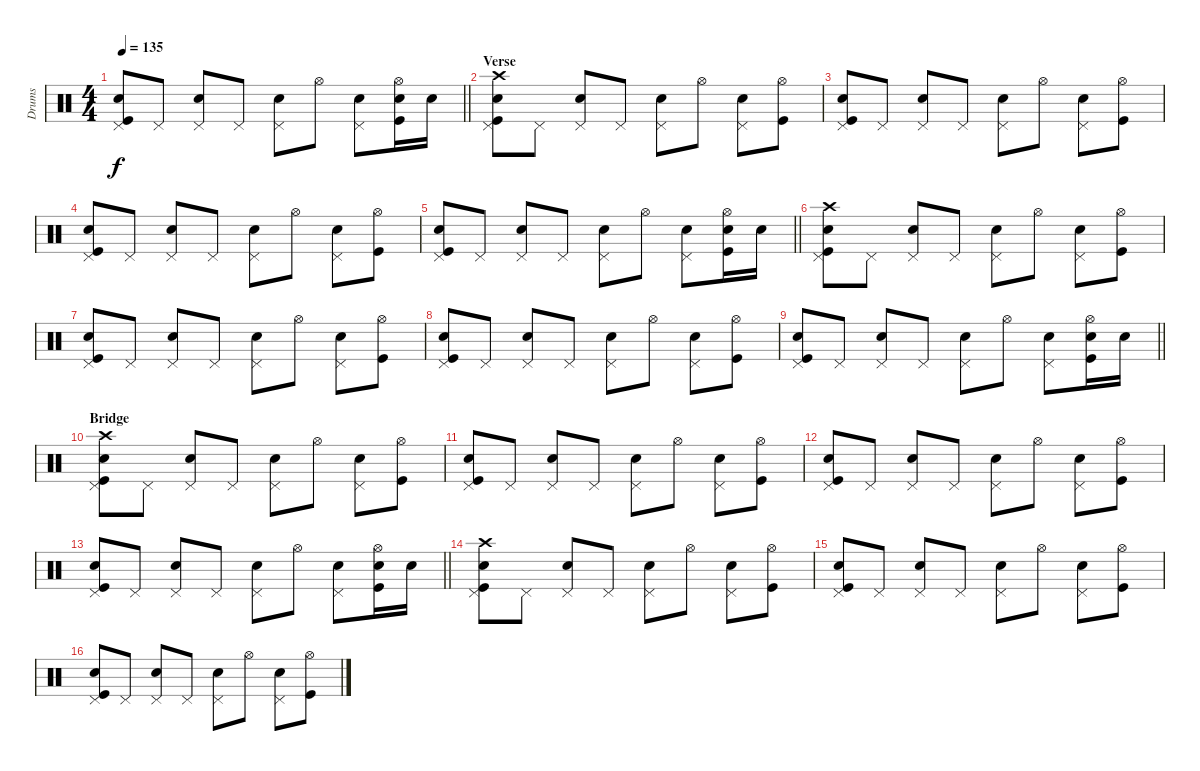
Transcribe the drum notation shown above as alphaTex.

\track ("Drums" "Drums") {instrument percussion}
\staff {score}
\articulation defaults
\ts (4 4)
\tempo 135
\clef neutral
\barLineRight lightlight
\ks c
("Pedal Hi-Hat (hit)" "Kick (hit)" "Electric Snare (hit)").8{dy f} "Pedal Hi-Hat (hit)".8 ("Pedal Hi-Hat (hit)" "Electric Snare (hit)").8 "Pedal Hi-Hat (hit)".8 ("Pedal Hi-Hat (hit)" "Electric Snare (hit)").8 "Hi-Hat (open)".8 ("Pedal Hi-Hat (hit)" "Electric Snare (hit)").8 ("Hi-Hat (open)" "Kick (hit)" "Electric Snare (hit)").16 "Electric Snare (hit)".16 |
\section ("" "Verse")
("Pedal Hi-Hat (hit)" "Kick (hit)" "Electric Snare (hit)" "Crash high (hit)").8 "Pedal Hi-Hat (hit)".8 ("Pedal Hi-Hat (hit)" "Electric Snare (hit)").8 "Pedal Hi-Hat (hit)".8 ("Pedal Hi-Hat (hit)" "Electric Snare (hit)").8 "Hi-Hat (open)".8 ("Pedal Hi-Hat (hit)" "Electric Snare (hit)").8 ("Hi-Hat (open)" "Kick (hit)").8 |
("Pedal Hi-Hat (hit)" "Kick (hit)" "Electric Snare (hit)").8 "Pedal Hi-Hat (hit)".8 ("Pedal Hi-Hat (hit)" "Electric Snare (hit)").8 "Pedal Hi-Hat (hit)".8 ("Pedal Hi-Hat (hit)" "Electric Snare (hit)").8 "Hi-Hat (open)".8 ("Pedal Hi-Hat (hit)" "Electric Snare (hit)").8 ("Hi-Hat (open)" "Kick (hit)").8 |
("Pedal Hi-Hat (hit)" "Kick (hit)" "Electric Snare (hit)").8 "Pedal Hi-Hat (hit)".8 ("Pedal Hi-Hat (hit)" "Electric Snare (hit)").8 "Pedal Hi-Hat (hit)".8 ("Pedal Hi-Hat (hit)" "Electric Snare (hit)").8 "Hi-Hat (open)".8 ("Pedal Hi-Hat (hit)" "Electric Snare (hit)").8 ("Hi-Hat (open)" "Kick (hit)").8 |
\barLineRight lightlight
("Pedal Hi-Hat (hit)" "Kick (hit)" "Electric Snare (hit)").8 "Pedal Hi-Hat (hit)".8 ("Pedal Hi-Hat (hit)" "Electric Snare (hit)").8 "Pedal Hi-Hat (hit)".8 ("Pedal Hi-Hat (hit)" "Electric Snare (hit)").8 "Hi-Hat (open)".8 ("Pedal Hi-Hat (hit)" "Electric Snare (hit)").8 ("Hi-Hat (open)" "Kick (hit)" "Electric Snare (hit)").16 "Electric Snare (hit)".16 |
("Pedal Hi-Hat (hit)" "Kick (hit)" "Electric Snare (hit)" "Crash high (hit)").8 "Pedal Hi-Hat (hit)".8 ("Pedal Hi-Hat (hit)" "Electric Snare (hit)").8 "Pedal Hi-Hat (hit)".8 ("Pedal Hi-Hat (hit)" "Electric Snare (hit)").8 "Hi-Hat (open)".8 ("Pedal Hi-Hat (hit)" "Electric Snare (hit)").8 ("Hi-Hat (open)" "Kick (hit)").8 |
("Pedal Hi-Hat (hit)" "Kick (hit)" "Electric Snare (hit)").8 "Pedal Hi-Hat (hit)".8 ("Pedal Hi-Hat (hit)" "Electric Snare (hit)").8 "Pedal Hi-Hat (hit)".8 ("Pedal Hi-Hat (hit)" "Electric Snare (hit)").8 "Hi-Hat (open)".8 ("Pedal Hi-Hat (hit)" "Electric Snare (hit)").8 ("Hi-Hat (open)" "Kick (hit)").8 |
("Pedal Hi-Hat (hit)" "Kick (hit)" "Electric Snare (hit)").8 "Pedal Hi-Hat (hit)".8 ("Pedal Hi-Hat (hit)" "Electric Snare (hit)").8 "Pedal Hi-Hat (hit)".8 ("Pedal Hi-Hat (hit)" "Electric Snare (hit)").8 "Hi-Hat (open)".8 ("Pedal Hi-Hat (hit)" "Electric Snare (hit)").8 ("Hi-Hat (open)" "Kick (hit)").8 |
\barLineRight lightlight
("Pedal Hi-Hat (hit)" "Kick (hit)" "Electric Snare (hit)").8 "Pedal Hi-Hat (hit)".8 ("Pedal Hi-Hat (hit)" "Electric Snare (hit)").8 "Pedal Hi-Hat (hit)".8 ("Pedal Hi-Hat (hit)" "Electric Snare (hit)").8 "Hi-Hat (open)".8 ("Pedal Hi-Hat (hit)" "Electric Snare (hit)").8 ("Hi-Hat (open)" "Kick (hit)" "Electric Snare (hit)").16 "Electric Snare (hit)".16 |
\section ("" "Bridge")
("Pedal Hi-Hat (hit)" "Kick (hit)" "Electric Snare (hit)" "Crash high (hit)").8 "Pedal Hi-Hat (hit)".8 ("Pedal Hi-Hat (hit)" "Electric Snare (hit)").8 "Pedal Hi-Hat (hit)".8 ("Pedal Hi-Hat (hit)" "Electric Snare (hit)").8 "Hi-Hat (open)".8 ("Pedal Hi-Hat (hit)" "Electric Snare (hit)").8 ("Hi-Hat (open)" "Kick (hit)").8 |
("Pedal Hi-Hat (hit)" "Kick (hit)" "Electric Snare (hit)").8 "Pedal Hi-Hat (hit)".8 ("Pedal Hi-Hat (hit)" "Electric Snare (hit)").8 "Pedal Hi-Hat (hit)".8 ("Pedal Hi-Hat (hit)" "Electric Snare (hit)").8 "Hi-Hat (open)".8 ("Pedal Hi-Hat (hit)" "Electric Snare (hit)").8 ("Hi-Hat (open)" "Kick (hit)").8 |
("Pedal Hi-Hat (hit)" "Kick (hit)" "Electric Snare (hit)").8 "Pedal Hi-Hat (hit)".8 ("Pedal Hi-Hat (hit)" "Electric Snare (hit)").8 "Pedal Hi-Hat (hit)".8 ("Pedal Hi-Hat (hit)" "Electric Snare (hit)").8 "Hi-Hat (open)".8 ("Pedal Hi-Hat (hit)" "Electric Snare (hit)").8 ("Hi-Hat (open)" "Kick (hit)").8 |
\barLineRight lightlight
("Pedal Hi-Hat (hit)" "Kick (hit)" "Electric Snare (hit)").8 "Pedal Hi-Hat (hit)".8 ("Pedal Hi-Hat (hit)" "Electric Snare (hit)").8 "Pedal Hi-Hat (hit)".8 ("Pedal Hi-Hat (hit)" "Electric Snare (hit)").8 "Hi-Hat (open)".8 ("Pedal Hi-Hat (hit)" "Electric Snare (hit)").8 ("Hi-Hat (open)" "Kick (hit)" "Electric Snare (hit)").16 "Electric Snare (hit)".16 |
("Pedal Hi-Hat (hit)" "Kick (hit)" "Electric Snare (hit)" "Crash high (hit)").8 "Pedal Hi-Hat (hit)".8 ("Pedal Hi-Hat (hit)" "Electric Snare (hit)").8 "Pedal Hi-Hat (hit)".8 ("Pedal Hi-Hat (hit)" "Electric Snare (hit)").8 "Hi-Hat (open)".8 ("Pedal Hi-Hat (hit)" "Electric Snare (hit)").8 ("Hi-Hat (open)" "Kick (hit)").8 |
("Pedal Hi-Hat (hit)" "Kick (hit)" "Electric Snare (hit)").8 "Pedal Hi-Hat (hit)".8 ("Pedal Hi-Hat (hit)" "Electric Snare (hit)").8 "Pedal Hi-Hat (hit)".8 ("Pedal Hi-Hat (hit)" "Electric Snare (hit)").8 "Hi-Hat (open)".8 ("Pedal Hi-Hat (hit)" "Electric Snare (hit)").8 ("Hi-Hat (open)" "Kick (hit)").8 |
("Pedal Hi-Hat (hit)" "Kick (hit)" "Electric Snare (hit)").8 "Pedal Hi-Hat (hit)".8 ("Pedal Hi-Hat (hit)" "Electric Snare (hit)").8 "Pedal Hi-Hat (hit)".8 ("Pedal Hi-Hat (hit)" "Electric Snare (hit)").8 "Hi-Hat (open)".8 ("Pedal Hi-Hat (hit)" "Electric Snare (hit)").8 ("Hi-Hat (open)" "Kick (hit)").8
